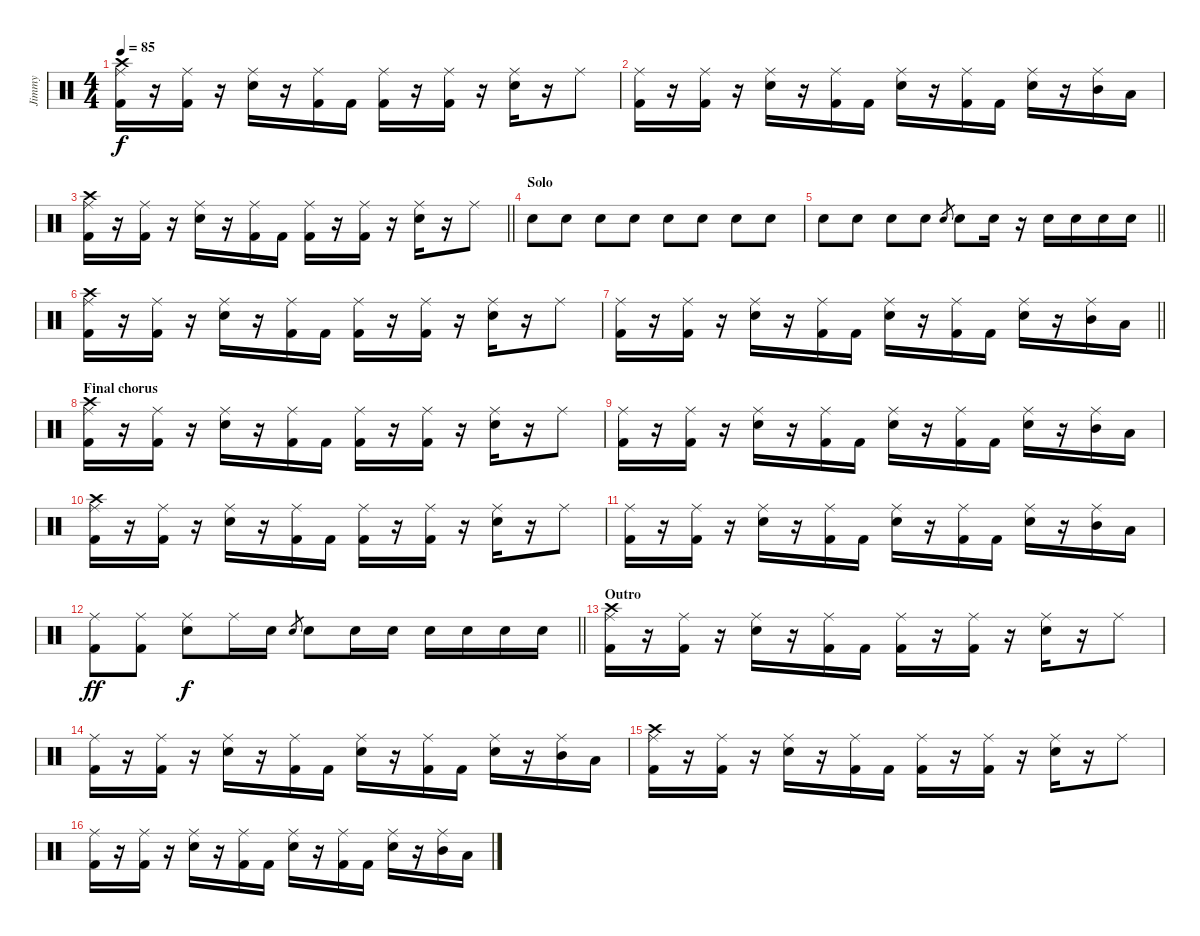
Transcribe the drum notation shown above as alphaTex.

\track ("Jimmy" "Jimmy") {instrument percussion}
\staff {score}
\articulation defaults
\ts (4 4)
\tempo 85
\clef neutral
\ks c
("Ride (middle)" "Crash high (hit)" "Kick (hit) 2").16{dy f} r.16 ("Ride (middle)" "Kick (hit) 2").16 r.16 ("Ride (middle)" "Electric Snare (hit)").16 r.16 ("Ride (middle)" "Kick (hit) 2").16 "Kick (hit) 2".16 ("Ride (middle)" "Kick (hit) 2").16 r.16 ("Ride (middle)" "Kick (hit) 2").16 r.16 ("Ride (middle)" "Electric Snare (hit)").16 r.16 "Ride (middle)".8 |
("Ride (middle)" "Kick (hit) 2").16 r.16 ("Ride (middle)" "Kick (hit) 2").16 r.16 ("Ride (middle)" "Electric Snare (hit)").16 r.16 ("Ride (middle)" "Kick (hit) 2").16 "Kick (hit) 2".16 ("Ride (middle)" "Electric Snare (hit)").16 r.16 ("Ride (middle)" "Kick (hit) 2").16 "Kick (hit) 2".16 ("Ride (middle)" "Electric Snare (hit)").16 r.16 ("Ride (middle)" "Mid Tom (hit)").16 "Low Tom (hit)".16 |
\barLineRight lightlight
("Ride (middle)" "Crash high (hit)" "Kick (hit) 2").16 r.16 ("Ride (middle)" "Kick (hit) 2").16 r.16 ("Ride (middle)" "Electric Snare (hit)").16 r.16 ("Ride (middle)" "Kick (hit) 2").16 "Kick (hit) 2".16 ("Ride (middle)" "Kick (hit) 2").16 r.16 ("Ride (middle)" "Kick (hit) 2").16 r.16 ("Ride (middle)" "Electric Snare (hit)").16 r.16 "Ride (middle)".8 |
\section ("" "Solo")
"Electric Snare (hit)".8 "Electric Snare (hit)".8 "Electric Snare (hit)".8 "Electric Snare (hit)".8 "Electric Snare (hit)".8 "Electric Snare (hit)".8 "Electric Snare (hit)".8 "Electric Snare (hit)".8 |
\barLineRight lightlight "Electric Snare (hit)".8 "Electric Snare (hit)".8 "Electric Snare (hit)".8 "Electric Snare (hit)".8 "Electric Snare (hit)".8{gr} "Electric Snare (hit)".8 "Electric Snare (hit)".16
r.16 "Electric Snare (hit)".16 "Electric Snare (hit)".16 "Electric Snare (hit)".16 "Electric Snare (hit)".16 |
("Ride (middle)" "Crash high (hit)" "Kick (hit) 2").16 r.16 ("Ride (middle)" "Kick (hit) 2").16 r.16 ("Ride (middle)" "Electric Snare (hit)").16 r.16 ("Ride (middle)" "Kick (hit) 2").16 "Kick (hit) 2".16 ("Ride (middle)" "Kick (hit) 2").16 r.16 ("Ride (middle)" "Kick (hit) 2").16 r.16 ("Ride (middle)" "Electric Snare (hit)").16 r.16 "Ride (middle)".8 |
\barLineRight lightlight
("Ride (middle)" "Kick (hit) 2").16 r.16 ("Ride (middle)" "Kick (hit) 2").16 r.16 ("Ride (middle)" "Electric Snare (hit)").16 r.16 ("Ride (middle)" "Kick (hit) 2").16 "Kick (hit) 2".16 ("Ride (middle)" "Electric Snare (hit)").16 r.16 ("Ride (middle)" "Kick (hit) 2").16 "Kick (hit) 2".16 ("Ride (middle)" "Electric Snare (hit)").16 r.16 ("Ride (middle)" "Mid Tom (hit)").16 "Low Tom (hit)".16 |
\section ("" "Final chorus")
("Ride (middle)" "Crash high (hit)" "Kick (hit) 2").16 r.16 ("Ride (middle)" "Kick (hit) 2").16 r.16 ("Ride (middle)" "Electric Snare (hit)").16 r.16 ("Ride (middle)" "Kick (hit) 2").16 "Kick (hit) 2".16 ("Ride (middle)" "Kick (hit) 2").16 r.16 ("Ride (middle)" "Kick (hit) 2").16 r.16 ("Ride (middle)" "Electric Snare (hit)").16 r.16 "Ride (middle)".8 |
("Ride (middle)" "Kick (hit) 2").16 r.16 ("Ride (middle)" "Kick (hit) 2").16 r.16 ("Ride (middle)" "Electric Snare (hit)").16 r.16 ("Ride (middle)" "Kick (hit) 2").16 "Kick (hit) 2".16 ("Ride (middle)" "Electric Snare (hit)").16 r.16 ("Ride (middle)" "Kick (hit) 2").16 "Kick (hit) 2".16 ("Ride (middle)" "Electric Snare (hit)").16 r.16 ("Ride (middle)" "Mid Tom (hit)").16 "Low Tom (hit)".16 |
("Ride (middle)" "Crash high (hit)" "Kick (hit) 2").16 r.16 ("Ride (middle)" "Kick (hit) 2").16 r.16 ("Ride (middle)" "Electric Snare (hit)").16 r.16 ("Ride (middle)" "Kick (hit) 2").16 "Kick (hit) 2".16 ("Ride (middle)" "Kick (hit) 2").16 r.16 ("Ride (middle)" "Kick (hit) 2").16 r.16 ("Ride (middle)" "Electric Snare (hit)").16 r.16 "Ride (middle)".8 |
("Ride (middle)" "Kick (hit) 2").16 r.16 ("Ride (middle)" "Kick (hit) 2").16 r.16 ("Ride (middle)" "Electric Snare (hit)").16 r.16 ("Ride (middle)" "Kick (hit) 2").16 "Kick (hit) 2".16 ("Ride (middle)" "Electric Snare (hit)").16 r.16 ("Ride (middle)" "Kick (hit) 2").16 "Kick (hit) 2".16 ("Ride (middle)" "Electric Snare (hit)").16 r.16 ("Ride (middle)" "Mid Tom (hit)").16 "Low Tom (hit)".16 |
\barLineRight lightlight
("Ride (middle)" "Kick (hit) 2").8{dy ff} ("Ride (middle)" "Kick (hit) 2").8 ("Ride (middle)" "Electric Snare (hit)").8{dy f} "Ride (middle)".16 "Electric Snare (hit)".16 "Electric Snare (hit)".8{gr} "Electric Snare (hit)".8 "Electric Snare (hit)".16 "Electric Snare (hit)".16 "Electric Snare (hit)".16 "Electric Snare (hit)".16 "Electric Snare (hit)".16 "Electric Snare (hit)".16 |
\section ("" "Outro")
("Ride (middle)" "Crash high (hit)" "Kick (hit) 2").16 r.16 ("Ride (middle)" "Kick (hit) 2").16 r.16 ("Ride (middle)" "Electric Snare (hit)").16 r.16 ("Ride (middle)" "Kick (hit) 2").16 "Kick (hit) 2".16 ("Ride (middle)" "Kick (hit) 2").16 r.16 ("Ride (middle)" "Kick (hit) 2").16 r.16 ("Ride (middle)" "Electric Snare (hit)").16 r.16 "Ride (middle)".8 |
("Ride (middle)" "Kick (hit) 2").16 r.16 ("Ride (middle)" "Kick (hit) 2").16 r.16 ("Ride (middle)" "Electric Snare (hit)").16 r.16 ("Ride (middle)" "Kick (hit) 2").16 "Kick (hit) 2".16 ("Ride (middle)" "Electric Snare (hit)").16 r.16 ("Ride (middle)" "Kick (hit) 2").16 "Kick (hit) 2".16 ("Ride (middle)" "Electric Snare (hit)").16 r.16 ("Ride (middle)" "Mid Tom (hit)").16 "Low Tom (hit)".16 |
("Ride (middle)" "Crash high (hit)" "Kick (hit) 2").16 r.16 ("Ride (middle)" "Kick (hit) 2").16 r.16 ("Ride (middle)" "Electric Snare (hit)").16 r.16 ("Ride (middle)" "Kick (hit) 2").16 "Kick (hit) 2".16 ("Ride (middle)" "Kick (hit) 2").16 r.16 ("Ride (middle)" "Kick (hit) 2").16 r.16 ("Ride (middle)" "Electric Snare (hit)").16 r.16 "Ride (middle)".8 |
("Ride (middle)" "Kick (hit) 2").16 r.16 ("Ride (middle)" "Kick (hit) 2").16 r.16 ("Ride (middle)" "Electric Snare (hit)").16 r.16 ("Ride (middle)" "Kick (hit) 2").16 "Kick (hit) 2".16 ("Ride (middle)" "Electric Snare (hit)").16 r.16 ("Ride (middle)" "Kick (hit) 2").16 "Kick (hit) 2".16 ("Ride (middle)" "Electric Snare (hit)").16 r.16 ("Ride (middle)" "Mid Tom (hit)").16 "Low Tom (hit)".16
